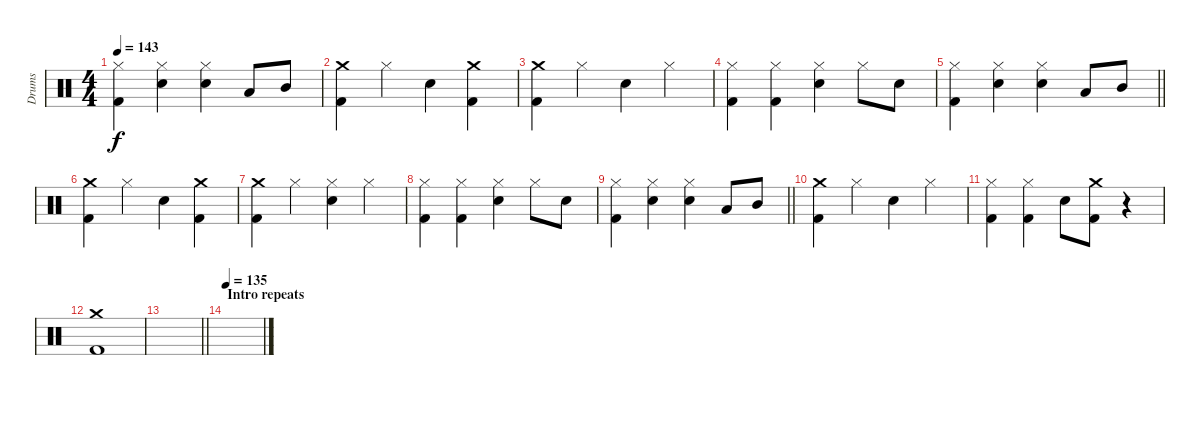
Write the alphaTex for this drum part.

\track ("Drums" "Drums") {mute instrument percussion}
\staff {score}
\articulation defaults
\ts (4 4)
\tempo 143
\clef neutral
\ks c
("Hi-Hat (closed)" "Kick (hit) 2").4{dy f} ("Hi-Hat (closed)" "Snare (hit) 2").4 ("Hi-Hat (closed)" "Snare (hit) 2").4 "Low Tom (hit)".8 "Mid Tom (hit)".8 |
("Crash medium (hit)" "Kick (hit) 2").4 "Hi-Hat (closed)".4 "Snare (hit) 2".4 ("Crash medium (hit)" "Kick (hit) 2").4 |
("Crash medium (hit)" "Kick (hit) 2").4 "Hi-Hat (closed)".4 "Snare (hit) 2".4 "Hi-Hat (closed)".4 |
("Hi-Hat (closed)" "Kick (hit) 2").4 ("Hi-Hat (closed)" "Kick (hit) 2").4 ("Hi-Hat (closed)" "Snare (hit) 2").4 "Hi-Hat (closed)".8 "Snare (hit) 2".8 |
\barLineRight lightlight
("Hi-Hat (closed)" "Kick (hit) 2").4 ("Hi-Hat (closed)" "Snare (hit) 2").4 ("Hi-Hat (closed)" "Snare (hit) 2").4 "Low Tom (hit)".8 "Mid Tom (hit)".8 |
("Crash medium (hit)" "Kick (hit) 2").4 "Hi-Hat (closed)".4 "Snare (hit) 2".4 ("Crash medium (hit)" "Kick (hit) 2").4 |
("Crash medium (hit)" "Kick (hit) 2").4 "Hi-Hat (closed)".4 ("Hi-Hat (closed)" "Snare (hit) 2").4 "Hi-Hat (closed)".4 |
("Hi-Hat (closed)" "Kick (hit) 2").4 ("Hi-Hat (closed)" "Kick (hit) 2").4 ("Hi-Hat (closed)" "Snare (hit) 2").4 "Hi-Hat (closed)".8 "Snare (hit) 2".8 |
\barLineRight lightlight
("Hi-Hat (closed)" "Kick (hit) 2").4 ("Hi-Hat (closed)" "Snare (hit) 2").4 ("Hi-Hat (closed)" "Snare (hit) 2").4 "Low Tom (hit)".8 "Mid Tom (hit)".8 |
("Crash medium (hit)" "Kick (hit) 2").4 "Hi-Hat (closed)".4 "Snare (hit) 2".4 "Hi-Hat (closed)".4 |
("Hi-Hat (closed)" "Kick (hit) 2").4 ("Hi-Hat (closed)" "Kick (hit) 2").4 "Snare (hit) 2".8 ("Crash medium (hit)" "Kick (hit) 2").8 r.4 |
("Crash medium (hit)" "Kick (hit) 2").1 |
\barLineRight lightlight
|
\section ("" "Intro repeats")
\tempo 135
